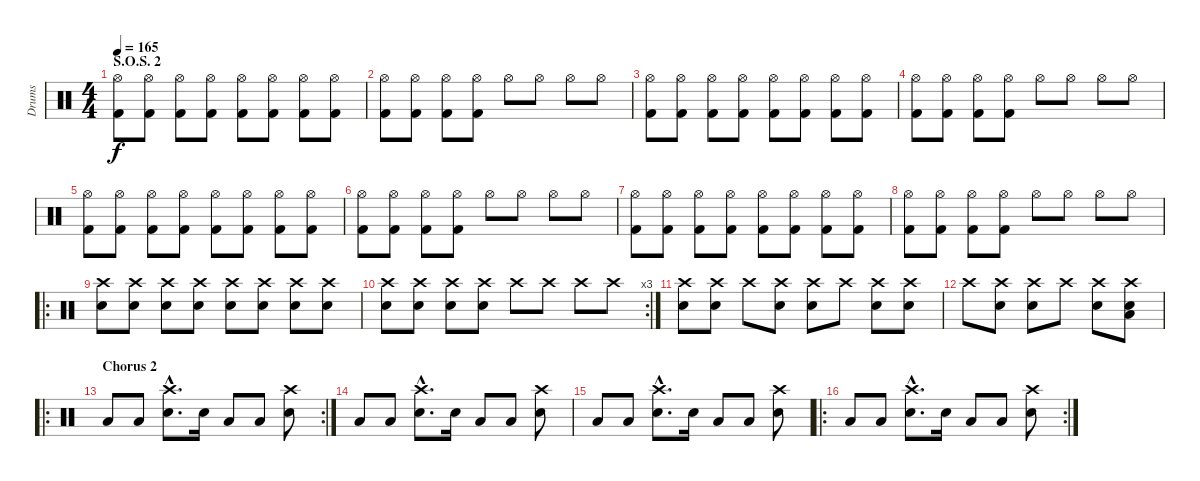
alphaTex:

\track ("Drums" "Drums") {instrument percussion}
\staff {score}
\articulation defaults
\ts (4 4)
\section ("" "S.O.S. 2")
\tempo 165
\clef neutral
\ks c
("Hi-Hat (open)" "Kick (hit) 2").8{dy f} ("Hi-Hat (open)" "Kick (hit) 2").8 ("Hi-Hat (open)" "Kick (hit) 2").8 ("Hi-Hat (open)" "Kick (hit) 2").8 ("Hi-Hat (open)" "Kick (hit) 2").8 ("Hi-Hat (open)" "Kick (hit) 2").8 ("Hi-Hat (open)" "Kick (hit) 2").8 ("Hi-Hat (open)" "Kick (hit) 2").8 |
("Hi-Hat (open)" "Kick (hit) 2").8 ("Hi-Hat (open)" "Kick (hit) 2").8 ("Hi-Hat (open)" "Kick (hit) 2").8 ("Hi-Hat (open)" "Kick (hit) 2").8 "Hi-Hat (open)".8 "Hi-Hat (open)".8 "Hi-Hat (open)".8 "Hi-Hat (open)".8 |
("Hi-Hat (open)" "Kick (hit) 2").8 ("Hi-Hat (open)" "Kick (hit) 2").8 ("Hi-Hat (open)" "Kick (hit) 2").8 ("Hi-Hat (open)" "Kick (hit) 2").8 ("Hi-Hat (open)" "Kick (hit) 2").8 ("Hi-Hat (open)" "Kick (hit) 2").8 ("Hi-Hat (open)" "Kick (hit) 2").8 ("Hi-Hat (open)" "Kick (hit) 2").8 |
("Hi-Hat (open)" "Kick (hit) 2").8 ("Hi-Hat (open)" "Kick (hit) 2").8 ("Hi-Hat (open)" "Kick (hit) 2").8 ("Hi-Hat (open)" "Kick (hit) 2").8 "Hi-Hat (open)".8 "Hi-Hat (open)".8 "Hi-Hat (open)".8 "Hi-Hat (open)".8 |
("Hi-Hat (open)" "Kick (hit) 2").8 ("Hi-Hat (open)" "Kick (hit) 2").8 ("Hi-Hat (open)" "Kick (hit) 2").8 ("Hi-Hat (open)" "Kick (hit) 2").8 ("Hi-Hat (open)" "Kick (hit) 2").8 ("Hi-Hat (open)" "Kick (hit) 2").8 ("Hi-Hat (open)" "Kick (hit) 2").8 ("Hi-Hat (open)" "Kick (hit) 2").8 |
("Hi-Hat (open)" "Kick (hit) 2").8 ("Hi-Hat (open)" "Kick (hit) 2").8 ("Hi-Hat (open)" "Kick (hit) 2").8 ("Hi-Hat (open)" "Kick (hit) 2").8 "Hi-Hat (open)".8 "Hi-Hat (open)".8 "Hi-Hat (open)".8 "Hi-Hat (open)".8 |
("Hi-Hat (open)" "Kick (hit) 2").8 ("Hi-Hat (open)" "Kick (hit) 2").8 ("Hi-Hat (open)" "Kick (hit) 2").8 ("Hi-Hat (open)" "Kick (hit) 2").8 ("Hi-Hat (open)" "Kick (hit) 2").8 ("Hi-Hat (open)" "Kick (hit) 2").8 ("Hi-Hat (open)" "Kick (hit) 2").8 ("Hi-Hat (open)" "Kick (hit) 2").8 |
("Hi-Hat (open)" "Kick (hit) 2").8 ("Hi-Hat (open)" "Kick (hit) 2").8 ("Hi-Hat (open)" "Kick (hit) 2").8 ("Hi-Hat (open)" "Kick (hit) 2").8 "Hi-Hat (open)".8 "Hi-Hat (open)".8 "Hi-Hat (open)".8 "Hi-Hat (open)".8 |
\ro
("Crash high (hit)" "Electric Snare (hit)").8 ("Crash high (hit)" "Electric Snare (hit)").8 ("Crash high (hit)" "Electric Snare (hit)").8 ("Crash high (hit)" "Electric Snare (hit)").8 ("Crash high (hit)" "Electric Snare (hit)").8 ("Crash high (hit)" "Electric Snare (hit)").8 ("Crash high (hit)" "Electric Snare (hit)").8 ("Crash high (hit)" "Electric Snare (hit)").8 |
\rc 3
("Crash high (hit)" "Electric Snare (hit)").8 ("Crash high (hit)" "Electric Snare (hit)").8 ("Crash high (hit)" "Electric Snare (hit)").8 ("Crash high (hit)" "Electric Snare (hit)").8 "Crash high (hit)".8 "Crash high (hit)".8 "Crash high (hit)".8 "Crash high (hit)".8 |
("Crash high (hit)" "Electric Snare (hit)").8 ("Crash high (hit)" "Electric Snare (hit)").8 "Crash high (hit)".8 ("Crash high (hit)" "Electric Snare (hit)").8 ("Crash high (hit)" "Electric Snare (hit)").8 "Crash high (hit)".8 ("Crash high (hit)" "Electric Snare (hit)").8 ("Crash high (hit)" "Electric Snare (hit)").8 |
"Crash high (hit)".8 ("Crash high (hit)" "Electric Snare (hit)").8 ("Crash high (hit)" "Electric Snare (hit)").8 "Crash high (hit)".8 ("Crash high (hit)" "Electric Snare (hit)").8 ("Electric Snare (hit)" "Crash high (hit)" "Low Floor Tom (hit)").8 |
\ro
\rc 2
\section ("" "Chorus 2")
"Low Tom (hit)".8 "Low Tom (hit)".8 ("Electric Snare (hit)"{hac} "Crash high (hit)"{hac}).8{d} "Electric Snare (hit)".16 "Low Tom (hit)".8 "Low Tom (hit)".8 ("Electric Snare (hit)" "Crash high (hit)").8 |
"Low Tom (hit)".8 "Low Tom (hit)".8 ("Electric Snare (hit)"{hac} "Crash high (hit)"{hac}).8{d} "Electric Snare (hit)".16 "Low Tom (hit)".8 "Low Tom (hit)".8 ("Electric Snare (hit)" "Crash high (hit)").8 |
"Low Tom (hit)".8 "Low Tom (hit)".8 ("Electric Snare (hit)"{hac} "Crash high (hit)"{hac}).8{d} "Electric Snare (hit)".16 "Low Tom (hit)".8 "Low Tom (hit)".8 ("Electric Snare (hit)" "Crash high (hit)").8 |
\ro
\rc 2 "Low Tom (hit)".8 "Low Tom (hit)".8
("Electric Snare (hit)"{hac} "Crash high (hit)"{hac}).8{d} "Electric Snare (hit)".16 "Low Tom (hit)".8 "Low Tom (hit)".8 ("Electric Snare (hit)" "Crash high (hit)").8
